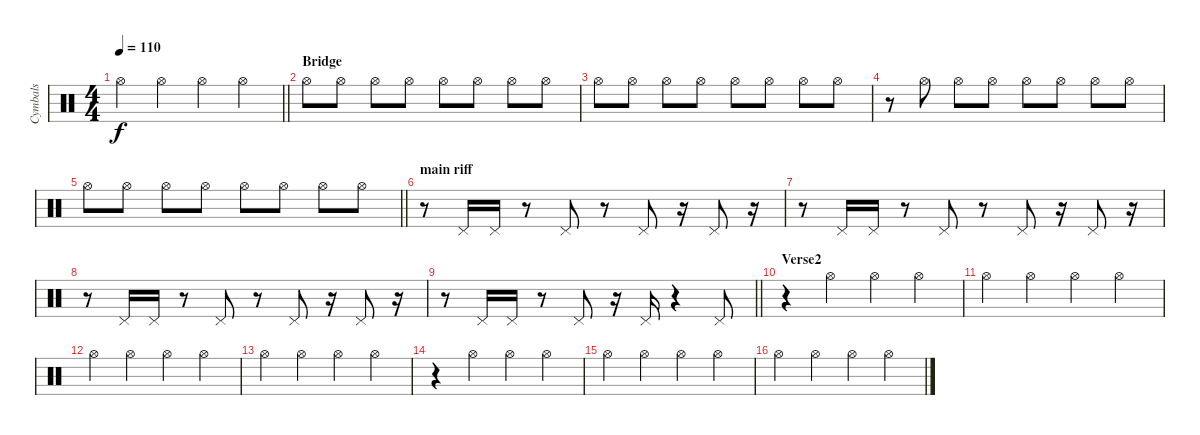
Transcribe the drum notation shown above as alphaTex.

\track ("Cymbals" "Cymbals") {instrument percussion}
\staff {score}
\articulation defaults
\ts (4 4)
\tempo 110
\clef neutral
\barLineRight lightlight
\ks c "Hi-Hat (open)".4{dy f} "Hi-Hat (open)".4 "Hi-Hat (open)".4 "Hi-Hat (open)".4
|
\section ("" "Bridge")
"Hi-Hat (open)".8 "Hi-Hat (open)".8 "Hi-Hat (open)".8 "Hi-Hat (open)".8 "Hi-Hat (open)".8 "Hi-Hat (open)".8 "Hi-Hat (open)".8 "Hi-Hat (open)".8 |
"Hi-Hat (open)".8 "Hi-Hat (open)".8 "Hi-Hat (open)".8 "Hi-Hat (open)".8 "Hi-Hat (open)".8 "Hi-Hat (open)".8 "Hi-Hat (open)".8 "Hi-Hat (open)".8 |
r.8 "Hi-Hat (open)".8 "Hi-Hat (open)".8 "Hi-Hat (open)".8 "Hi-Hat (open)".8 "Hi-Hat (open)".8 "Hi-Hat (open)".8 "Hi-Hat (open)".8 |
\barLineRight lightlight "Hi-Hat (open)".8 "Hi-Hat (open)".8 "Hi-Hat (open)".8 "Hi-Hat (open)".8 "Hi-Hat (open)".8 "Hi-Hat (open)".8 "Hi-Hat (open)".8 "Hi-Hat (open)".8
|
\section ("" "main riff")
r.8 "Pedal Hi-Hat (hit)".16 "Pedal Hi-Hat (hit)".16 r.8 "Pedal Hi-Hat (hit)".8 r.8 "Pedal Hi-Hat (hit)".8 r.16 "Pedal Hi-Hat (hit)".8 r.16 |
r.8 "Pedal Hi-Hat (hit)".16 "Pedal Hi-Hat (hit)".16 r.8 "Pedal Hi-Hat (hit)".8 r.8 "Pedal Hi-Hat (hit)".8 r.16 "Pedal Hi-Hat (hit)".8 r.16 |
r.8 "Pedal Hi-Hat (hit)".16 "Pedal Hi-Hat (hit)".16 r.8 "Pedal Hi-Hat (hit)".8 r.8 "Pedal Hi-Hat (hit)".8 r.16 "Pedal Hi-Hat (hit)".8 r.16 |
\barLineRight lightlight
r.8 "Pedal Hi-Hat (hit)".16 "Pedal Hi-Hat (hit)".16 r.8 "Pedal Hi-Hat (hit)".8 r.16 "Pedal Hi-Hat (hit)".16 r.4 "Pedal Hi-Hat (hit)".8 |
\section ("" "Verse2")
r.4 "Hi-Hat (open)".4 "Hi-Hat (open)".4 "Hi-Hat (open)".4 |
"Hi-Hat (open)".4 "Hi-Hat (open)".4 "Hi-Hat (open)".4 "Hi-Hat (open)".4 |
"Hi-Hat (open)".4 "Hi-Hat (open)".4 "Hi-Hat (open)".4 "Hi-Hat (open)".4 |
"Hi-Hat (open)".4 "Hi-Hat (open)".4 "Hi-Hat (open)".4 "Hi-Hat (open)".4 |
r.4 "Hi-Hat (open)".4 "Hi-Hat (open)".4 "Hi-Hat (open)".4 |
"Hi-Hat (open)".4 "Hi-Hat (open)".4 "Hi-Hat (open)".4 "Hi-Hat (open)".4 |
"Hi-Hat (open)".4 "Hi-Hat (open)".4 "Hi-Hat (open)".4 "Hi-Hat (open)".4
